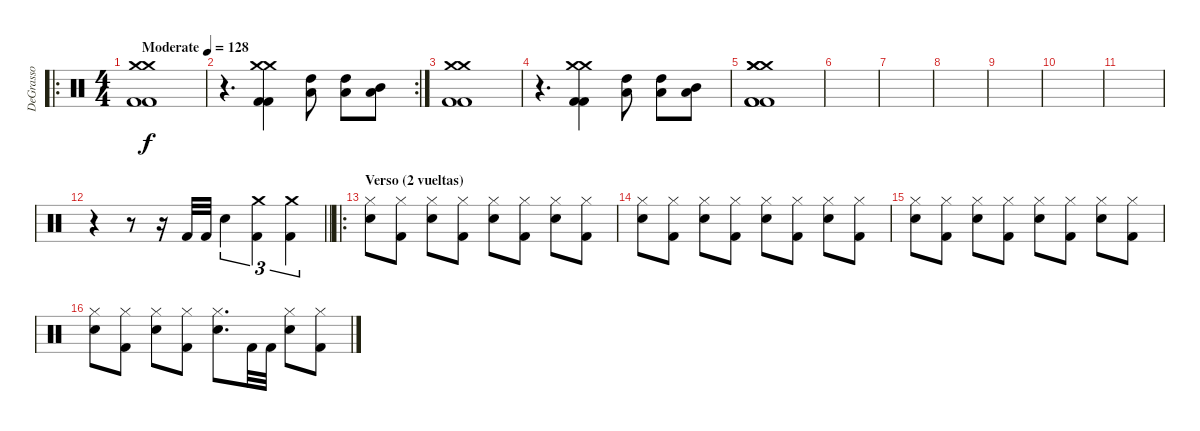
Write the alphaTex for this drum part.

\track ("DeGrasso" "DeGrasso") {instrument percussion}
\staff {score}
\articulation defaults
\ro
\ts (4 4)
\tempo (128 "Moderate")
\clef neutral
\ks c
("Crash medium (hit)" "Crash medium (hit)" "Kick (hit) 2" "Kick (hit) 2").1{dy f} |
\rc 2
r.4{d} ("Crash medium (hit)" "Crash medium (hit)" "Kick (hit) 2" "Kick (hit) 2").4 ("High Tom (hit)" "Low Tom (hit)").8 ("High Tom (hit)" "Low Tom (hit)").8 ("Mid Tom (hit)" "Low Tom (hit)").8 |
("Crash medium (hit)" "Crash medium (hit)" "Kick (hit) 2" "Kick (hit) 2").1 |
r.4{d} ("Crash medium (hit)" "Crash medium (hit)" "Kick (hit) 2" "Kick (hit) 2").4 ("High Tom (hit)" "Low Tom (hit)").8 ("High Tom (hit)" "Low Tom (hit)").8 ("Mid Tom (hit)" "Low Tom (hit)").8 |
("Crash medium (hit)" "Crash medium (hit)" "Crash medium (hit)" "Kick (hit) 2" "Kick (hit) 2" "Kick (hit) 2").1 |
|
|
|
|
|
|
\barLineRight lightlight
r.4 r.8 r.16 "Kick (hit) 2".32 "Kick (hit) 2".32 "Electric Snare (hit)".4{tu (3 2)} ("Crash medium (hit)" "Kick (hit) 2").4{tu (3 2)} ("Crash medium (hit)" "Kick (hit) 2").4{tu (3 2)} |
\ro
\section ("" "Verso (2 vueltas)")
("Hi-Hat (closed)" "Electric Snare (hit)").8 ("Hi-Hat (closed)" "Kick (hit) 2").8 ("Hi-Hat (closed)" "Electric Snare (hit)").8 ("Hi-Hat (closed)" "Kick (hit) 2").8 ("Hi-Hat (closed)" "Electric Snare (hit)").8 ("Hi-Hat (closed)" "Kick (hit) 2").8 ("Hi-Hat (closed)" "Electric Snare (hit)").8 ("Hi-Hat (closed)" "Kick (hit) 2").8 |
("Hi-Hat (closed)" "Electric Snare (hit)").8 ("Hi-Hat (closed)" "Kick (hit) 2").8 ("Hi-Hat (closed)" "Electric Snare (hit)").8 ("Hi-Hat (closed)" "Kick (hit) 2").8 ("Hi-Hat (closed)" "Electric Snare (hit)").8 ("Hi-Hat (closed)" "Kick (hit) 2").8 ("Hi-Hat (closed)" "Electric Snare (hit)").8 ("Hi-Hat (closed)" "Kick (hit) 2").8 |
("Hi-Hat (closed)" "Electric Snare (hit)").8 ("Hi-Hat (closed)" "Kick (hit) 2").8 ("Hi-Hat (closed)" "Electric Snare (hit)").8 ("Hi-Hat (closed)" "Kick (hit) 2").8 ("Hi-Hat (closed)" "Electric Snare (hit)").8 ("Hi-Hat (closed)" "Kick (hit) 2").8 ("Hi-Hat (closed)" "Electric Snare (hit)").8 ("Hi-Hat (closed)" "Kick (hit) 2").8 |
("Hi-Hat (closed)" "Electric Snare (hit)").8 ("Hi-Hat (closed)" "Kick (hit) 2").8 ("Hi-Hat (closed)" "Electric Snare (hit)").8 ("Hi-Hat (closed)" "Kick (hit) 2").8 ("Hi-Hat (closed)" "Electric Snare (hit)").8{d} "Kick (hit) 2".32 "Kick (hit) 2".32 ("Hi-Hat (closed)" "Electric Snare (hit)").8 ("Hi-Hat (closed)" "Kick (hit) 2").8
